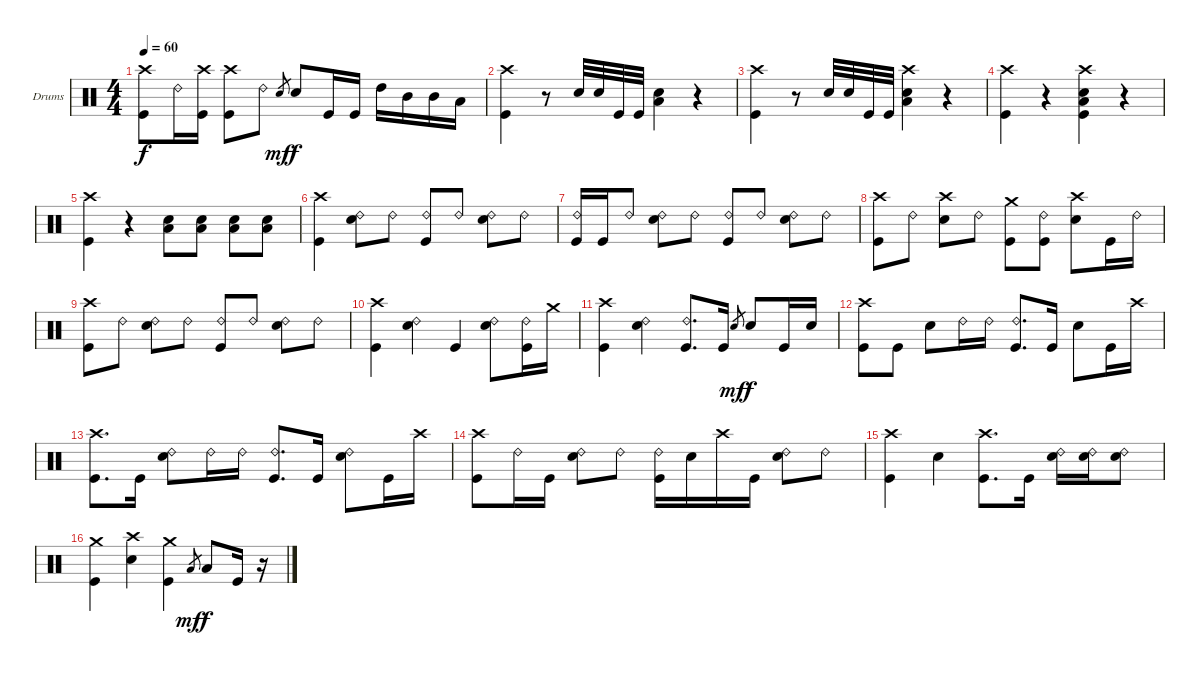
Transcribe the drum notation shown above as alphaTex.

\bracketExtendMode groupsimilarinstruments
\firstSystemTrackNameOrientation horizontal
\otherSystemsTrackNameOrientation horizontal
\track ("Drumkit" "Drums") {instrument percussion}
\staff {score}
\articulation defaults
\ts (4 4)
\tempo 60
\clef neutral
\ks c
("Crash high (hit)" "Kick (hit)").8{dy f} "Ride (bell) 2".16 ("Crash high (hit)" "Kick (hit)").16 ("Crash high (hit)" "Kick (hit)").8 "Ride (bell) 2".8 "Snare (hit) 2".8{gr dy mf} "Snare (hit) 2".8{dy f} "Kick (hit)".16 "Kick (hit)".16 "High Tom (hit)".16 "Mid Tom (hit)".16 "Mid Tom (hit)".16 "Low Tom (hit)".16 |
("Crash high (hit)" "Kick (hit)").4 r.8 "Snare (hit) 2".32 "Snare (hit) 2".32 "Kick (hit)".32 "Kick (hit)".32 ("Low Tom (hit)" "Snare (hit) 2").4 r.4 |
("Crash high (hit)" "Kick (hit)").4 r.8 "Snare (hit) 2".32 "Snare (hit) 2".32 "Kick (hit)".32 "Kick (hit)".32 ("Crash high (hit)" "Low Tom (hit)" "Snare (hit) 2").4 r.4 |
("Crash high (hit)" "Kick (hit)").4 r.4 ("Crash high (hit)" "Low Tom (hit)" "Snare (hit) 2" "Kick (hit)").4 r.4 |
("Crash high (hit)" "Kick (hit)").4 r.4 ("Low Tom (hit)" "Snare (hit) 2").8 ("Low Tom (hit)" "Snare (hit) 2").8 ("Low Tom (hit)" "Snare (hit) 2").8 ("Low Tom (hit)" "Snare (hit) 2").8 |
("Crash high (hit)" "Kick (hit)").4 ("Ride (bell) 2" "Snare (hit) 2").8 "Ride (bell) 2".8 ("Ride (bell) 2" "Kick (hit)").8 "Ride (bell) 2".8 ("Ride (bell) 2" "Snare (hit) 2").8 "Ride (bell) 2".8 |
("Ride (bell) 2" "Kick (hit)").16 "Kick (hit)".16 "Ride (bell) 2".8 ("Ride (bell) 2" "Snare (hit) 2").8 "Ride (bell) 2".8 ("Ride (bell) 2" "Kick (hit)").8 "Ride (bell) 2".8 ("Ride (bell) 2" "Snare (hit) 2").8 "Ride (bell) 2".8 |
("Crash high (hit)" "Kick (hit)").8 "Ride (bell) 2".8 ("Crash high (hit)" "Snare (hit) 2").8 "Ride (bell) 2".8 ("Crash medium (hit)" "Kick (hit)").8 ("Ride (bell) 2" "Kick (hit)").8 ("Crash high (hit)" "Snare (hit) 2").8 "Kick (hit)".16 "Ride (bell) 2".16 |
("Crash high (hit)" "Kick (hit)").8 "Ride (bell) 2".8 ("Ride (bell) 2" "Snare (hit) 2").8 "Ride (bell) 2".8 ("Ride (bell) 2" "Kick (hit)").8 "Ride (bell) 2".8 ("Ride (bell) 2" "Snare (hit) 2").8 "Ride (bell) 2".8 |
("Crash high (hit)" "Kick (hit)").4 ("Ride (bell) 2" "Snare (hit) 2").4 "Kick (hit)".4 ("Ride (bell) 2" "Snare (hit) 2").8 ("Ride (bell) 2" "Kick (hit)").16 "Crash medium (hit)".16 |
("Crash high (hit)" "Kick (hit)").4 ("Ride (bell) 2" "Snare (hit) 2").4 ("Ride (bell) 2" "Kick (hit)").8{d} "Kick (hit)".16 "Snare (hit) 2".8{gr dy mf} "Snare (hit) 2".8{dy f} "Kick (hit)".16 "Snare (hit) 2".16 |
("Crash high (hit)" "Kick (hit)").8 "Kick (hit)".8 "Snare (hit) 2".8 "Ride (bell) 2".16 "Ride (bell) 2".16 ("Ride (bell) 2" "Kick (hit)").8{d} "Kick (hit)".16 "Snare (hit) 2".8 "Kick (hit)".16 "Crash high (hit)".16 |
("Crash high (hit)" "Kick (hit)").8{d} "Kick (hit)".16 ("Ride (bell) 2" "Snare (hit) 2").8 "Ride (bell) 2".16 "Ride (bell) 2".16 ("Ride (bell) 2" "Kick (hit)").8{d} "Kick (hit)".16 ("Ride (bell) 2" "Snare (hit) 2").8 "Kick (hit)".16 "Crash high (hit)".16 |
("Crash high (hit)" "Kick (hit)").8 "Ride (bell) 2".16 "Kick (hit)".16 ("Ride (bell) 2" "Snare (hit) 2").8 "Ride (bell) 2".8 ("Ride (bell) 2" "Kick (hit)").16 "Snare (hit) 2".16 "Crash high (hit)".16 "Kick (hit)".16 ("Ride (bell) 2" "Snare (hit) 2").8 "Ride (bell) 2".8 |
("Crash high (hit)" "Kick (hit)").4 "Snare (hit) 2".4 ("Crash high (hit)" "Kick (hit)").8{d} "Kick (hit)".16 ("Ride (bell) 2" "Snare (hit) 2").16 ("Ride (bell) 2" "Snare (hit) 2").16 ("Ride (bell) 2" "Snare (hit) 2").8 |
("Crash medium (hit)" "Kick (hit)").4 ("Crash high (hit)" "Snare (hit) 2").4 ("Crash medium (hit)" "Kick (hit)").4 "Low Tom (hit)".8{gr dy mf} "Low Tom (hit)".8{dy f} "Kick (hit)".16 r.16
